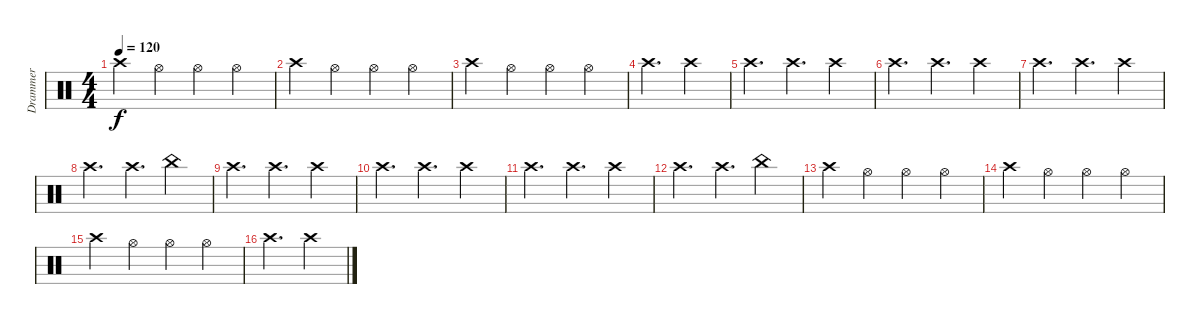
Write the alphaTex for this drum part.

\track ("Drammer" "Drammer") {instrument percussion}
\staff {score}
\articulation defaults
\ts (4 4)
\tempo 120
\clef neutral
\ks c "Crash high (hit)".4{dy f} "Hi-Hat (open)".4 "Hi-Hat (open)".4 "Hi-Hat (open)".4
|
"Crash high (hit)".4 "Hi-Hat (open)".4 "Hi-Hat (open)".4 "Hi-Hat (open)".4 |
"Crash high (hit)".4 "Hi-Hat (open)".4 "Hi-Hat (open)".4 "Hi-Hat (open)".4 |
"Crash high (hit)".4{d} "Crash high (hit)".4 |
"Crash high (hit)".4{d} "Crash high (hit)".4{d} "Crash high (hit)".4 |
"Crash high (hit)".4{d} "Crash high (hit)".4{d} "Crash high (hit)".4 |
"Crash high (hit)".4{d} "Crash high (hit)".4{d} "Crash high (hit)".4 |
"Crash high (hit)".4{d} "Crash high (hit)".4{d} "China (hit)".4 |
"Crash high (hit)".4{d} "Crash high (hit)".4{d} "Crash high (hit)".4 |
"Crash high (hit)".4{d} "Crash high (hit)".4{d} "Crash high (hit)".4 |
"Crash high (hit)".4{d} "Crash high (hit)".4{d} "Crash high (hit)".4 |
"Crash high (hit)".4{d} "Crash high (hit)".4{d} "China (hit)".4 |
"Crash high (hit)".4 "Hi-Hat (open)".4 "Hi-Hat (open)".4 "Hi-Hat (open)".4 |
"Crash high (hit)".4 "Hi-Hat (open)".4 "Hi-Hat (open)".4 "Hi-Hat (open)".4 |
"Crash high (hit)".4 "Hi-Hat (open)".4 "Hi-Hat (open)".4 "Hi-Hat (open)".4 |
"Crash high (hit)".4{d} "Crash high (hit)".4
